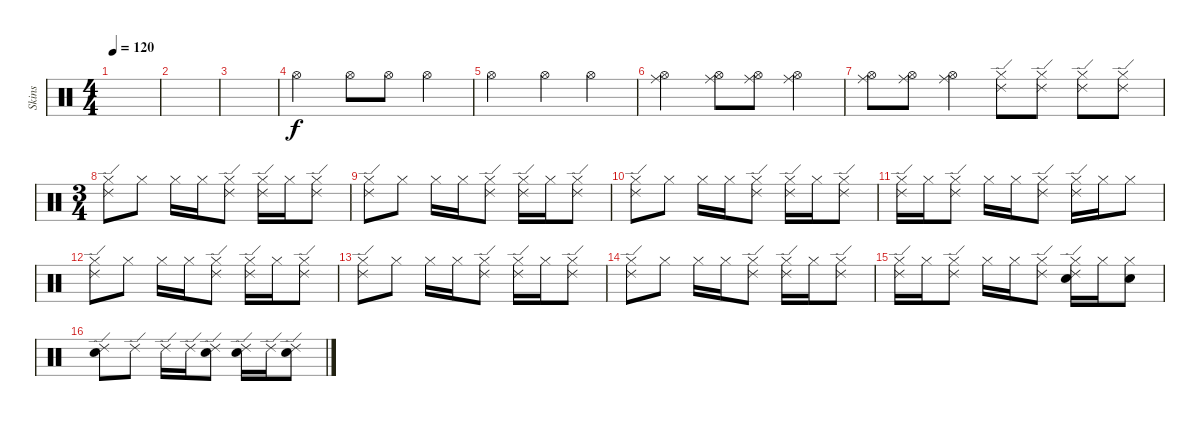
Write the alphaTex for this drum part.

\track ("Skins" "Skins") {instrument percussion}
\staff {score}
\articulation defaults
\ts (4 4)
\tempo 120
\clef neutral
\ks c
|
|
|
"Hi-Hat (open)".2 "Hi-Hat (open)".8 "Hi-Hat (open)".8 "Hi-Hat (open)".4 |
"Hi-Hat (open)".2 "Hi-Hat (open)".4 "Hi-Hat (open)".4 |
("Hi-Hat (open)" "Ride (middle)").2 ("Hi-Hat (open)" "Ride (middle)").8 ("Hi-Hat (open)" "Ride (middle)").8 ("Hi-Hat (open)" "Ride (middle)").4 |
("Hi-Hat (open)" "Ride (middle)").8 ("Hi-Hat (open)" "Ride (middle)").8 ("Hi-Hat (open)" "Ride (middle)").4 ("Ride (edge) 2" "Hi-Hat (closed)").8 ("Ride (edge) 2" "Hi-Hat (closed)").8 ("Ride (edge) 2" "Hi-Hat (closed)").8 ("Ride (edge) 2" "Hi-Hat (closed)").8 |
\ts (3 4)
("Ride (edge) 2" "Hi-Hat (closed)").8 "Hi-Hat (closed)".8 "Hi-Hat (closed)".16 "Hi-Hat (closed)".16 ("Ride (edge) 2" "Hi-Hat (closed)").8 ("Ride (edge) 2" "Hi-Hat (closed)").16 "Hi-Hat (closed)".16 ("Ride (edge) 2" "Hi-Hat (closed)").8 |
("Ride (edge) 2" "Hi-Hat (closed)").8 "Hi-Hat (closed)".8 "Hi-Hat (closed)".16 "Hi-Hat (closed)".16 ("Ride (edge) 2" "Hi-Hat (closed)").8 ("Ride (edge) 2" "Hi-Hat (closed)").16 "Hi-Hat (closed)".16 ("Ride (edge) 2" "Hi-Hat (closed)").8 |
("Ride (edge) 2" "Hi-Hat (closed)").8 "Hi-Hat (closed)".8 "Hi-Hat (closed)".16 "Hi-Hat (closed)".16 ("Ride (edge) 2" "Hi-Hat (closed)").8 ("Ride (edge) 2" "Hi-Hat (closed)").16 "Hi-Hat (closed)".16 ("Ride (edge) 2" "Hi-Hat (closed)").8 |
("Ride (edge) 2" "Hi-Hat (closed)").16 "Hi-Hat (closed)".16 ("Ride (edge) 2" "Hi-Hat (closed)").8 "Hi-Hat (closed)".16 "Hi-Hat (closed)".16 ("Ride (edge) 2" "Hi-Hat (closed)").8 ("Ride (edge) 2" "Hi-Hat (closed)").16 "Hi-Hat (closed)".16 "Hi-Hat (closed)".8 |
("Ride (edge) 2" "Hi-Hat (closed)").8 "Hi-Hat (closed)".8 "Hi-Hat (closed)".16 "Hi-Hat (closed)".16 ("Ride (edge) 2" "Hi-Hat (closed)").8 ("Ride (edge) 2" "Hi-Hat (closed)").16 "Hi-Hat (closed)".16 ("Ride (edge) 2" "Hi-Hat (closed)").8 |
("Ride (edge) 2" "Hi-Hat (closed)").8 "Hi-Hat (closed)".8 "Hi-Hat (closed)".16 "Hi-Hat (closed)".16 ("Ride (edge) 2" "Hi-Hat (closed)").8 ("Ride (edge) 2" "Hi-Hat (closed)").16 "Hi-Hat (closed)".16 ("Ride (edge) 2" "Hi-Hat (closed)").8 |
("Ride (edge) 2" "Hi-Hat (closed)").8 "Hi-Hat (closed)".8 "Hi-Hat (closed)".16 "Hi-Hat (closed)".16 ("Ride (edge) 2" "Hi-Hat (closed)").8 ("Ride (edge) 2" "Hi-Hat (closed)").16 "Hi-Hat (closed)".16 ("Ride (edge) 2" "Hi-Hat (closed)").8 |
("Ride (edge) 2" "Hi-Hat (closed)").16 "Hi-Hat (closed)".16 ("Ride (edge) 2" "Hi-Hat (closed)").8 "Hi-Hat (closed)".16 "Hi-Hat (closed)".16 ("Ride (edge) 2" "Hi-Hat (closed)").8 ("Ride (edge) 2" "Hi-Hat (closed)" "Electric Snare (hit)").16 "Hi-Hat (closed)".16 ("Hi-Hat (closed)" "Electric Snare (hit)").8 |
("Electric Snare (hit)" "Ride (edge) 2").8 "Ride (edge) 2".8 "Ride (edge) 2".16 "Ride (edge) 2".16 ("Electric Snare (hit)" "Ride (edge) 2").8 ("Electric Snare (hit)" "Ride (edge) 2").16 "Ride (edge) 2".16 ("Electric Snare (hit)" "Ride (edge) 2").8
